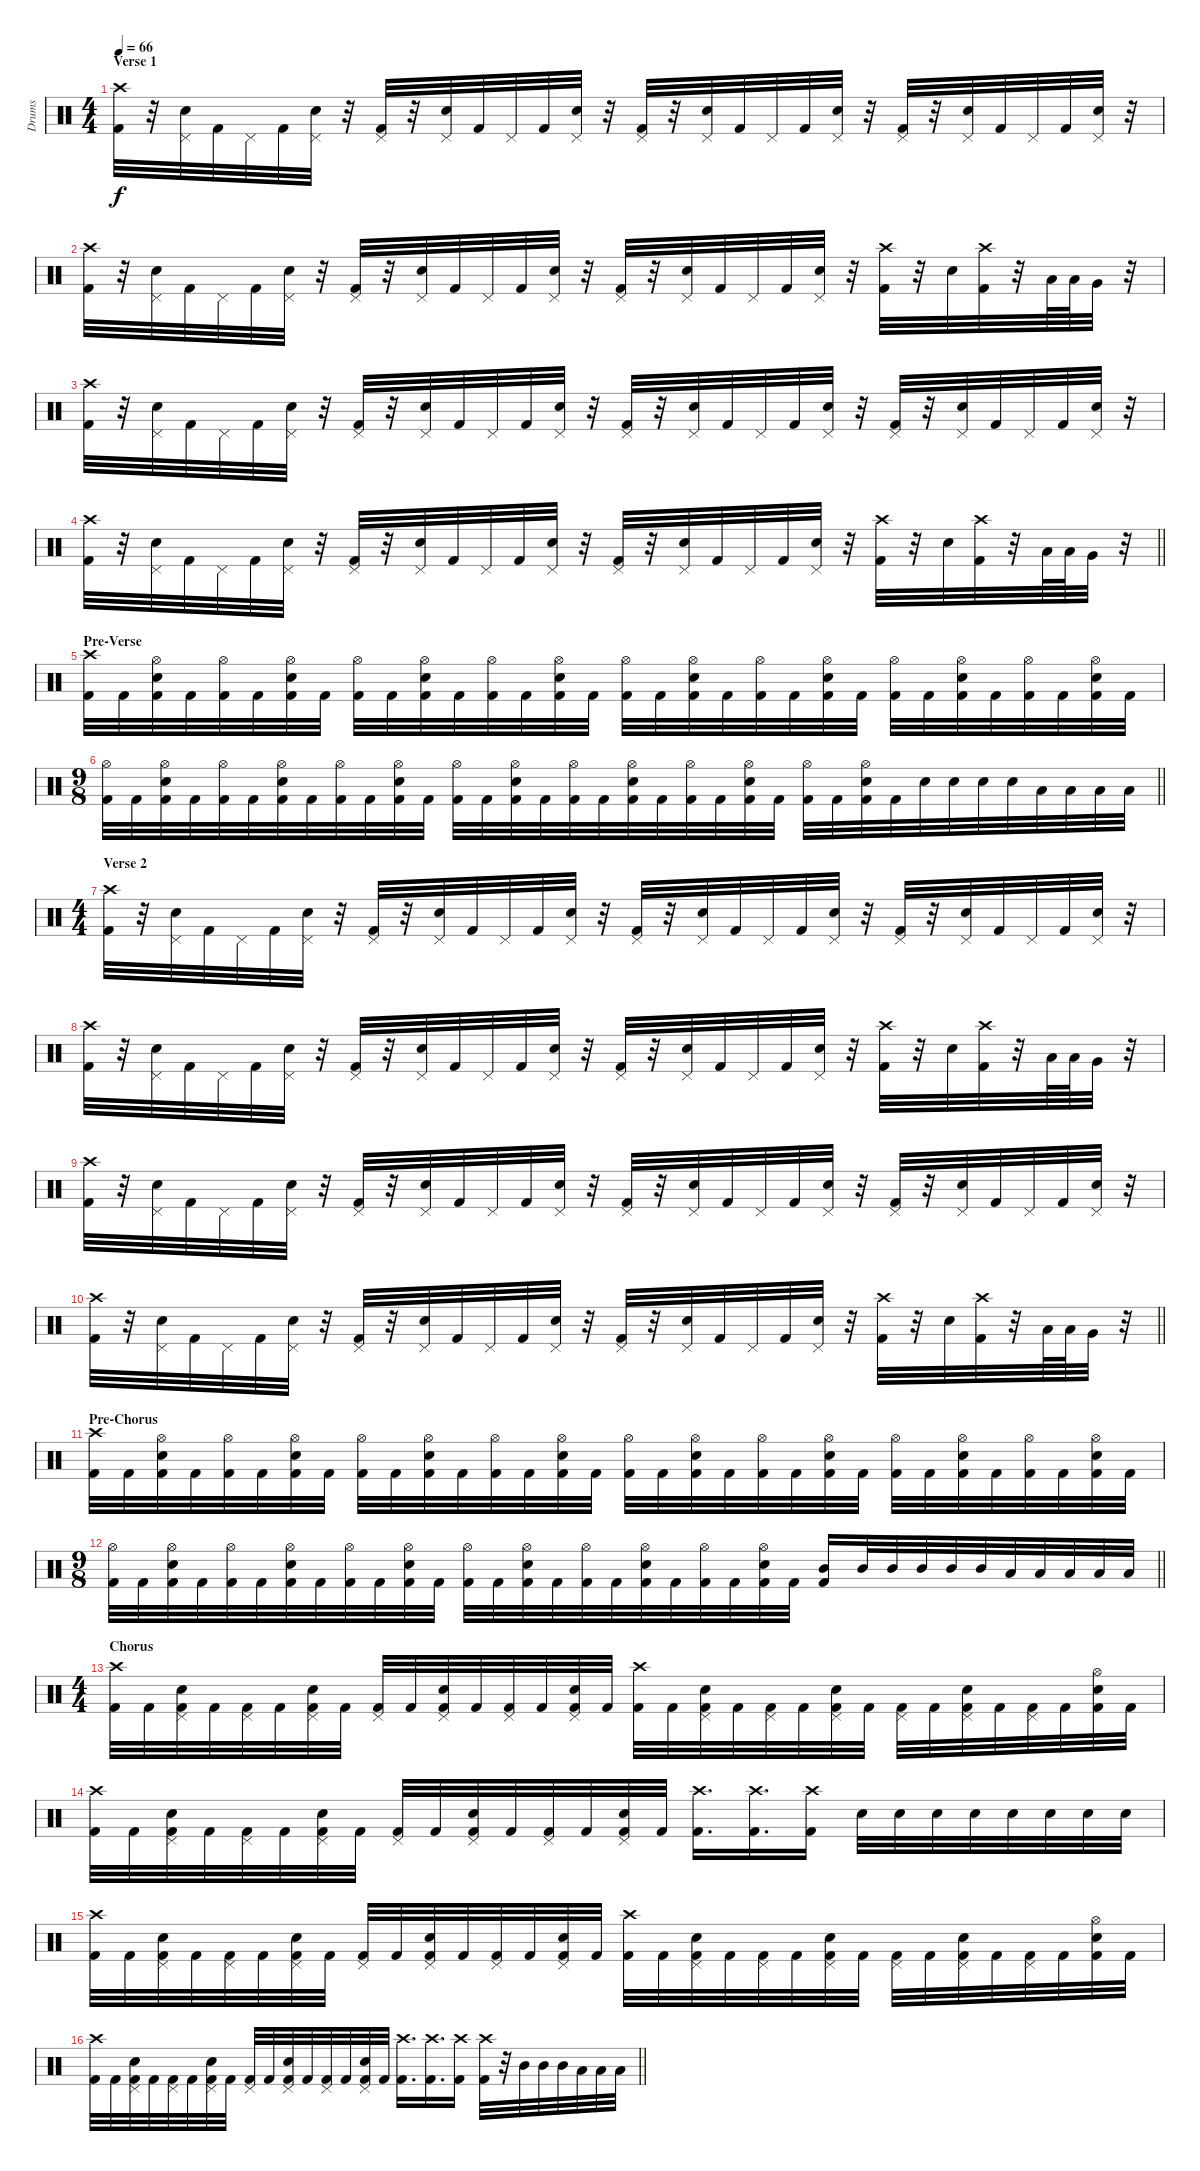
\track ("Drums" "Drums") {instrument percussion}
\staff {score}
\articulation defaults
\ts (4 4)
\section ("" "Verse 1")
\tempo 66
\clef neutral
\ks c
("Crash high (hit)" "Kick (hit) 2").32{dy f} r.32 ("Pedal Hi-Hat (hit)" "Snare (hit) 2").32 "Kick (hit) 2".32 "Pedal Hi-Hat (hit)".32 "Kick (hit) 2".32 ("Pedal Hi-Hat (hit)" "Snare (hit) 2").32 r.32 ("Pedal Hi-Hat (hit)" "Kick (hit) 2").32 r.32 ("Pedal Hi-Hat (hit)" "Snare (hit) 2").32 "Kick (hit) 2".32 "Pedal Hi-Hat (hit)".32 "Kick (hit) 2".32 ("Pedal Hi-Hat (hit)" "Snare (hit) 2").32 r.32 ("Pedal Hi-Hat (hit)" "Kick (hit) 2").32 r.32 ("Pedal Hi-Hat (hit)" "Snare (hit) 2").32 "Kick (hit) 2".32 "Pedal Hi-Hat (hit)".32 "Kick (hit) 2".32 ("Pedal Hi-Hat (hit)" "Snare (hit) 2").32 r.32 ("Pedal Hi-Hat (hit)" "Kick (hit) 2").32 r.32 ("Pedal Hi-Hat (hit)" "Snare (hit) 2").32 "Kick (hit) 2".32 "Pedal Hi-Hat (hit)".32 "Kick (hit) 2".32 ("Pedal Hi-Hat (hit)" "Snare (hit) 2").32 r.32 |
("Crash high (hit)" "Kick (hit) 2").32 r.32 ("Pedal Hi-Hat (hit)" "Snare (hit) 2").32 "Kick (hit) 2".32 "Pedal Hi-Hat (hit)".32 "Kick (hit) 2".32 ("Pedal Hi-Hat (hit)" "Snare (hit) 2").32 r.32 ("Pedal Hi-Hat (hit)" "Kick (hit) 2").32 r.32 ("Pedal Hi-Hat (hit)" "Snare (hit) 2").32 "Kick (hit) 2".32 "Pedal Hi-Hat (hit)".32 "Kick (hit) 2".32 ("Pedal Hi-Hat (hit)" "Snare (hit) 2").32 r.32 ("Pedal Hi-Hat (hit)" "Kick (hit) 2").32 r.32 ("Pedal Hi-Hat (hit)" "Snare (hit) 2").32 "Kick (hit) 2".32 "Pedal Hi-Hat (hit)".32 "Kick (hit) 2".32 ("Pedal Hi-Hat (hit)" "Snare (hit) 2").32 r.32 ("Crash high (hit)" "Kick (hit) 2").32 r.32 "Snare (hit) 2".32 ("Crash high (hit)" "Kick (hit) 2").32 r.32 "Low Tom (hit)".64 "Low Tom (hit)".64 "Very Low Tom (hit)".32 r.32 |
("Crash high (hit)" "Kick (hit) 2").32 r.32 ("Pedal Hi-Hat (hit)" "Snare (hit) 2").32 "Kick (hit) 2".32 "Pedal Hi-Hat (hit)".32 "Kick (hit) 2".32 ("Pedal Hi-Hat (hit)" "Snare (hit) 2").32 r.32 ("Pedal Hi-Hat (hit)" "Kick (hit) 2").32 r.32 ("Pedal Hi-Hat (hit)" "Snare (hit) 2").32 "Kick (hit) 2".32 "Pedal Hi-Hat (hit)".32 "Kick (hit) 2".32 ("Pedal Hi-Hat (hit)" "Snare (hit) 2").32 r.32 ("Pedal Hi-Hat (hit)" "Kick (hit) 2").32 r.32 ("Pedal Hi-Hat (hit)" "Snare (hit) 2").32 "Kick (hit) 2".32 "Pedal Hi-Hat (hit)".32 "Kick (hit) 2".32 ("Pedal Hi-Hat (hit)" "Snare (hit) 2").32 r.32 ("Pedal Hi-Hat (hit)" "Kick (hit) 2").32 r.32 ("Pedal Hi-Hat (hit)" "Snare (hit) 2").32 "Kick (hit) 2".32 "Pedal Hi-Hat (hit)".32 "Kick (hit) 2".32 ("Pedal Hi-Hat (hit)" "Snare (hit) 2").32 r.32 |
\barLineRight lightlight
("Crash high (hit)" "Kick (hit) 2").32 r.32 ("Pedal Hi-Hat (hit)" "Snare (hit) 2").32 "Kick (hit) 2".32 "Pedal Hi-Hat (hit)".32 "Kick (hit) 2".32 ("Pedal Hi-Hat (hit)" "Snare (hit) 2").32 r.32 ("Pedal Hi-Hat (hit)" "Kick (hit) 2").32 r.32 ("Pedal Hi-Hat (hit)" "Snare (hit) 2").32 "Kick (hit) 2".32 "Pedal Hi-Hat (hit)".32 "Kick (hit) 2".32 ("Pedal Hi-Hat (hit)" "Snare (hit) 2").32 r.32 ("Pedal Hi-Hat (hit)" "Kick (hit) 2").32 r.32 ("Pedal Hi-Hat (hit)" "Snare (hit) 2").32 "Kick (hit) 2".32 "Pedal Hi-Hat (hit)".32 "Kick (hit) 2".32 ("Pedal Hi-Hat (hit)" "Snare (hit) 2").32 r.32 ("Crash high (hit)" "Kick (hit) 2").32 r.32 "Snare (hit) 2".32 ("Crash high (hit)" "Kick (hit) 2").32 r.32 "Low Tom (hit)".64 "Low Tom (hit)".64 "Very Low Tom (hit)".32 r.32 |
\section ("" "Pre-Verse")
("Crash high (hit)" "Kick (hit) 2").32 "Kick (hit) 2".32 ("Hi-Hat (open)" "Snare (hit) 2" "Kick (hit) 2").32 "Kick (hit) 2".32 ("Hi-Hat (open)" "Kick (hit) 2").32 "Kick (hit) 2".32 ("Hi-Hat (open)" "Snare (hit) 2" "Kick (hit) 2").32 "Kick (hit) 2".32 ("Hi-Hat (open)" "Kick (hit) 2").32 "Kick (hit) 2".32 ("Hi-Hat (open)" "Snare (hit) 2" "Kick (hit) 2").32 "Kick (hit) 2".32 ("Hi-Hat (open)" "Kick (hit) 2").32 "Kick (hit) 2".32 ("Hi-Hat (open)" "Snare (hit) 2" "Kick (hit) 2").32 "Kick (hit) 2".32 ("Hi-Hat (open)" "Kick (hit) 2").32 "Kick (hit) 2".32 ("Hi-Hat (open)" "Snare (hit) 2" "Kick (hit) 2").32 "Kick (hit) 2".32 ("Hi-Hat (open)" "Kick (hit) 2").32 "Kick (hit) 2".32 ("Hi-Hat (open)" "Snare (hit) 2" "Kick (hit) 2").32 "Kick (hit) 2".32 ("Hi-Hat (open)" "Kick (hit) 2").32 "Kick (hit) 2".32 ("Hi-Hat (open)" "Snare (hit) 2" "Kick (hit) 2").32 "Kick (hit) 2".32 ("Hi-Hat (open)" "Kick (hit) 2").32 "Kick (hit) 2".32 ("Hi-Hat (open)" "Snare (hit) 2" "Kick (hit) 2").32 "Kick (hit) 2".32 |
\ts (9 8)
\barLineRight lightlight
("Hi-Hat (open)" "Kick (hit) 2").32 "Kick (hit) 2".32 ("Hi-Hat (open)" "Snare (hit) 2" "Kick (hit) 2").32 "Kick (hit) 2".32 ("Hi-Hat (open)" "Kick (hit) 2").32 "Kick (hit) 2".32 ("Hi-Hat (open)" "Snare (hit) 2" "Kick (hit) 2").32 "Kick (hit) 2".32 ("Hi-Hat (open)" "Kick (hit) 2").32 "Kick (hit) 2".32 ("Hi-Hat (open)" "Snare (hit) 2" "Kick (hit) 2").32 "Kick (hit) 2".32 ("Hi-Hat (open)" "Kick (hit) 2").32 "Kick (hit) 2".32 ("Hi-Hat (open)" "Snare (hit) 2" "Kick (hit) 2").32 "Kick (hit) 2".32 ("Hi-Hat (open)" "Kick (hit) 2").32 "Kick (hit) 2".32 ("Hi-Hat (open)" "Snare (hit) 2" "Kick (hit) 2").32 "Kick (hit) 2".32 ("Hi-Hat (open)" "Kick (hit) 2").32 "Kick (hit) 2".32 ("Hi-Hat (open)" "Snare (hit) 2" "Kick (hit) 2").32 "Kick (hit) 2".32 ("Hi-Hat (open)" "Kick (hit) 2").32 "Kick (hit) 2".32 ("Hi-Hat (open)" "Snare (hit) 2" "Kick (hit) 2").32 "Kick (hit) 2".32 "Snare (hit) 2".32 "Snare (hit) 2".32 "Snare (hit) 2".32 "Snare (hit) 2".32 "Low Tom (hit)".32 "Low Tom (hit)".32 "Low Tom (hit)".32 "Low Tom (hit)".32 |
\ts (4 4)
\section ("" "Verse 2")
("Crash high (hit)" "Kick (hit) 2").32 r.32 ("Pedal Hi-Hat (hit)" "Snare (hit) 2").32 "Kick (hit) 2".32 "Pedal Hi-Hat (hit)".32 "Kick (hit) 2".32 ("Pedal Hi-Hat (hit)" "Snare (hit) 2").32 r.32 ("Pedal Hi-Hat (hit)" "Kick (hit) 2").32 r.32 ("Pedal Hi-Hat (hit)" "Snare (hit) 2").32 "Kick (hit) 2".32 "Pedal Hi-Hat (hit)".32 "Kick (hit) 2".32 ("Pedal Hi-Hat (hit)" "Snare (hit) 2").32 r.32 ("Pedal Hi-Hat (hit)" "Kick (hit) 2").32 r.32 ("Pedal Hi-Hat (hit)" "Snare (hit) 2").32 "Kick (hit) 2".32 "Pedal Hi-Hat (hit)".32 "Kick (hit) 2".32 ("Pedal Hi-Hat (hit)" "Snare (hit) 2").32 r.32 ("Pedal Hi-Hat (hit)" "Kick (hit) 2").32 r.32 ("Pedal Hi-Hat (hit)" "Snare (hit) 2").32 "Kick (hit) 2".32 "Pedal Hi-Hat (hit)".32 "Kick (hit) 2".32 ("Pedal Hi-Hat (hit)" "Snare (hit) 2").32 r.32 |
("Crash high (hit)" "Kick (hit) 2").32 r.32 ("Pedal Hi-Hat (hit)" "Snare (hit) 2").32 "Kick (hit) 2".32 "Pedal Hi-Hat (hit)".32 "Kick (hit) 2".32 ("Pedal Hi-Hat (hit)" "Snare (hit) 2").32 r.32 ("Pedal Hi-Hat (hit)" "Kick (hit) 2").32 r.32 ("Pedal Hi-Hat (hit)" "Snare (hit) 2").32 "Kick (hit) 2".32 "Pedal Hi-Hat (hit)".32 "Kick (hit) 2".32 ("Pedal Hi-Hat (hit)" "Snare (hit) 2").32 r.32 ("Pedal Hi-Hat (hit)" "Kick (hit) 2").32 r.32 ("Pedal Hi-Hat (hit)" "Snare (hit) 2").32 "Kick (hit) 2".32 "Pedal Hi-Hat (hit)".32 "Kick (hit) 2".32 ("Pedal Hi-Hat (hit)" "Snare (hit) 2").32 r.32 ("Crash high (hit)" "Kick (hit) 2").32 r.32 "Snare (hit) 2".32 ("Crash high (hit)" "Kick (hit) 2").32 r.32 "Low Tom (hit)".64 "Low Tom (hit)".64 "Very Low Tom (hit)".32 r.32 |
("Crash high (hit)" "Kick (hit) 2").32 r.32 ("Pedal Hi-Hat (hit)" "Snare (hit) 2").32 "Kick (hit) 2".32 "Pedal Hi-Hat (hit)".32 "Kick (hit) 2".32 ("Pedal Hi-Hat (hit)" "Snare (hit) 2").32 r.32 ("Pedal Hi-Hat (hit)" "Kick (hit) 2").32 r.32 ("Pedal Hi-Hat (hit)" "Snare (hit) 2").32 "Kick (hit) 2".32 "Pedal Hi-Hat (hit)".32 "Kick (hit) 2".32 ("Pedal Hi-Hat (hit)" "Snare (hit) 2").32 r.32 ("Pedal Hi-Hat (hit)" "Kick (hit) 2").32 r.32 ("Pedal Hi-Hat (hit)" "Snare (hit) 2").32 "Kick (hit) 2".32 "Pedal Hi-Hat (hit)".32 "Kick (hit) 2".32 ("Pedal Hi-Hat (hit)" "Snare (hit) 2").32 r.32 ("Pedal Hi-Hat (hit)" "Kick (hit) 2").32 r.32 ("Pedal Hi-Hat (hit)" "Snare (hit) 2").32 "Kick (hit) 2".32 "Pedal Hi-Hat (hit)".32 "Kick (hit) 2".32 ("Pedal Hi-Hat (hit)" "Snare (hit) 2").32 r.32 |
\barLineRight lightlight
("Crash high (hit)" "Kick (hit) 2").32 r.32 ("Pedal Hi-Hat (hit)" "Snare (hit) 2").32 "Kick (hit) 2".32 "Pedal Hi-Hat (hit)".32 "Kick (hit) 2".32 ("Pedal Hi-Hat (hit)" "Snare (hit) 2").32 r.32 ("Pedal Hi-Hat (hit)" "Kick (hit) 2").32 r.32 ("Pedal Hi-Hat (hit)" "Snare (hit) 2").32 "Kick (hit) 2".32 "Pedal Hi-Hat (hit)".32 "Kick (hit) 2".32 ("Pedal Hi-Hat (hit)" "Snare (hit) 2").32 r.32 ("Pedal Hi-Hat (hit)" "Kick (hit) 2").32 r.32 ("Pedal Hi-Hat (hit)" "Snare (hit) 2").32 "Kick (hit) 2".32 "Pedal Hi-Hat (hit)".32 "Kick (hit) 2".32 ("Pedal Hi-Hat (hit)" "Snare (hit) 2").32 r.32 ("Crash high (hit)" "Kick (hit) 2").32 r.32 "Snare (hit) 2".32 ("Crash high (hit)" "Kick (hit) 2").32 r.32 "Low Tom (hit)".64 "Low Tom (hit)".64 "Very Low Tom (hit)".32 r.32 |
\section ("" "Pre-Chorus")
("Crash high (hit)" "Kick (hit) 2").32 "Kick (hit) 2".32 ("Hi-Hat (open)" "Snare (hit) 2" "Kick (hit) 2").32 "Kick (hit) 2".32 ("Hi-Hat (open)" "Kick (hit) 2").32 "Kick (hit) 2".32 ("Hi-Hat (open)" "Snare (hit) 2" "Kick (hit) 2").32 "Kick (hit) 2".32 ("Hi-Hat (open)" "Kick (hit) 2").32 "Kick (hit) 2".32 ("Hi-Hat (open)" "Snare (hit) 2" "Kick (hit) 2").32 "Kick (hit) 2".32 ("Hi-Hat (open)" "Kick (hit) 2").32 "Kick (hit) 2".32 ("Hi-Hat (open)" "Snare (hit) 2" "Kick (hit) 2").32 "Kick (hit) 2".32 ("Hi-Hat (open)" "Kick (hit) 2").32 "Kick (hit) 2".32 ("Hi-Hat (open)" "Snare (hit) 2" "Kick (hit) 2").32 "Kick (hit) 2".32 ("Hi-Hat (open)" "Kick (hit) 2").32 "Kick (hit) 2".32 ("Hi-Hat (open)" "Snare (hit) 2" "Kick (hit) 2").32 "Kick (hit) 2".32 ("Hi-Hat (open)" "Kick (hit) 2").32 "Kick (hit) 2".32 ("Hi-Hat (open)" "Snare (hit) 2" "Kick (hit) 2").32 "Kick (hit) 2".32 ("Hi-Hat (open)" "Kick (hit) 2").32 "Kick (hit) 2".32 ("Hi-Hat (open)" "Snare (hit) 2" "Kick (hit) 2").32 "Kick (hit) 2".32 |
\ts (9 8)
\barLineRight lightlight
("Hi-Hat (open)" "Kick (hit) 2").32 "Kick (hit) 2".32 ("Hi-Hat (open)" "Snare (hit) 2" "Kick (hit) 2").32 "Kick (hit) 2".32 ("Hi-Hat (open)" "Kick (hit) 2").32 "Kick (hit) 2".32 ("Hi-Hat (open)" "Snare (hit) 2" "Kick (hit) 2").32 "Kick (hit) 2".32 ("Hi-Hat (open)" "Kick (hit) 2").32 "Kick (hit) 2".32 ("Hi-Hat (open)" "Snare (hit) 2" "Kick (hit) 2").32 "Kick (hit) 2".32 ("Hi-Hat (open)" "Kick (hit) 2").32 "Kick (hit) 2".32 ("Hi-Hat (open)" "Snare (hit) 2" "Kick (hit) 2").32 "Kick (hit) 2".32 ("Hi-Hat (open)" "Kick (hit) 2").32 "Kick (hit) 2".32 ("Hi-Hat (open)" "Snare (hit) 2" "Kick (hit) 2").32 "Kick (hit) 2".32 ("Hi-Hat (open)" "Kick (hit) 2").32 "Kick (hit) 2".32 ("Hi-Hat (open)" "Snare (hit) 2" "Kick (hit) 2").32 "Kick (hit) 2".32 ("Mid Tom (hit)" "Kick (hit) 2").16 "Mid Tom (hit)".32 "Mid Tom (hit)".32 "Mid Tom (hit)".32 "Mid Tom (hit)".32 "Mid Tom (hit)".32 "Low Tom (hit)".32 "Low Tom (hit)".32 "Low Tom (hit)".32 "Low Tom (hit)".32 "Low Tom (hit)".32 |
\ts (4 4)
\section ("" "Chorus")
("Crash high (hit)" "Kick (hit) 2").32 "Kick (hit) 2".32 ("Pedal Hi-Hat (hit)" "Snare (hit) 2" "Kick (hit) 2").32 "Kick (hit) 2".32 ("Pedal Hi-Hat (hit)" "Kick (hit) 2").32 "Kick (hit) 2".32 ("Pedal Hi-Hat (hit)" "Snare (hit) 2" "Kick (hit) 2").32 "Kick (hit) 2".32 ("Pedal Hi-Hat (hit)" "Kick (hit) 2").32 "Kick (hit) 2".32 ("Pedal Hi-Hat (hit)" "Snare (hit) 2" "Kick (hit) 2").32 "Kick (hit) 2".32 ("Pedal Hi-Hat (hit)" "Kick (hit) 2").32 "Kick (hit) 2".32 ("Pedal Hi-Hat (hit)" "Snare (hit) 2" "Kick (hit) 2").32 "Kick (hit) 2".32 ("Crash high (hit)" "Kick (hit) 2").32 "Kick (hit) 2".32 ("Pedal Hi-Hat (hit)" "Snare (hit) 2" "Kick (hit) 2").32 "Kick (hit) 2".32 ("Pedal Hi-Hat (hit)" "Kick (hit) 2").32 "Kick (hit) 2".32 ("Pedal Hi-Hat (hit)" "Snare (hit) 2" "Kick (hit) 2").32 "Kick (hit) 2".32 ("Pedal Hi-Hat (hit)" "Kick (hit) 2").32 "Kick (hit) 2".32 ("Pedal Hi-Hat (hit)" "Snare (hit) 2" "Kick (hit) 2").32 "Kick (hit) 2".32 ("Pedal Hi-Hat (hit)" "Kick (hit) 2").32 "Kick (hit) 2".32 ("Hi-Hat (open)" "Snare (hit) 2" "Kick (hit) 2").32 "Kick (hit) 2".32 |
("Crash high (hit)" "Kick (hit) 2").32 "Kick (hit) 2".32 ("Pedal Hi-Hat (hit)" "Snare (hit) 2" "Kick (hit) 2").32 "Kick (hit) 2".32 ("Pedal Hi-Hat (hit)" "Kick (hit) 2").32 "Kick (hit) 2".32 ("Pedal Hi-Hat (hit)" "Snare (hit) 2" "Kick (hit) 2").32 "Kick (hit) 2".32 ("Pedal Hi-Hat (hit)" "Kick (hit) 2").32 "Kick (hit) 2".32 ("Pedal Hi-Hat (hit)" "Snare (hit) 2" "Kick (hit) 2").32 "Kick (hit) 2".32 ("Pedal Hi-Hat (hit)" "Kick (hit) 2").32 "Kick (hit) 2".32 ("Pedal Hi-Hat (hit)" "Snare (hit) 2" "Kick (hit) 2").32 "Kick (hit) 2".32 ("Crash high (hit)" "Kick (hit) 2").16{d} ("Crash high (hit)" "Kick (hit) 2").16{d} ("Crash high (hit)" "Kick (hit) 2").16 "Snare (hit) 2".32 "Snare (hit) 2".32 "Snare (hit) 2".32 "Snare (hit) 2".32 "Snare (hit) 2".32 "Snare (hit) 2".32 "Snare (hit) 2".32 "Snare (hit) 2".32 |
("Crash high (hit)" "Kick (hit) 2").32 "Kick (hit) 2".32 ("Pedal Hi-Hat (hit)" "Snare (hit) 2" "Kick (hit) 2").32 "Kick (hit) 2".32 ("Pedal Hi-Hat (hit)" "Kick (hit) 2").32 "Kick (hit) 2".32 ("Pedal Hi-Hat (hit)" "Snare (hit) 2" "Kick (hit) 2").32 "Kick (hit) 2".32 ("Pedal Hi-Hat (hit)" "Kick (hit) 2").32 "Kick (hit) 2".32 ("Pedal Hi-Hat (hit)" "Snare (hit) 2" "Kick (hit) 2").32 "Kick (hit) 2".32 ("Pedal Hi-Hat (hit)" "Kick (hit) 2").32 "Kick (hit) 2".32 ("Pedal Hi-Hat (hit)" "Snare (hit) 2" "Kick (hit) 2").32 "Kick (hit) 2".32 ("Crash high (hit)" "Kick (hit) 2").32 "Kick (hit) 2".32 ("Pedal Hi-Hat (hit)" "Snare (hit) 2" "Kick (hit) 2").32 "Kick (hit) 2".32 ("Pedal Hi-Hat (hit)" "Kick (hit) 2").32 "Kick (hit) 2".32 ("Pedal Hi-Hat (hit)" "Snare (hit) 2" "Kick (hit) 2").32 "Kick (hit) 2".32 ("Pedal Hi-Hat (hit)" "Kick (hit) 2").32 "Kick (hit) 2".32 ("Pedal Hi-Hat (hit)" "Snare (hit) 2" "Kick (hit) 2").32 "Kick (hit) 2".32 ("Pedal Hi-Hat (hit)" "Kick (hit) 2").32 "Kick (hit) 2".32 ("Hi-Hat (open)" "Snare (hit) 2" "Kick (hit) 2").32 "Kick (hit) 2".32 |
\barLineRight lightlight
("Crash high (hit)" "Kick (hit) 2").32 "Kick (hit) 2".32 ("Pedal Hi-Hat (hit)" "Snare (hit) 2" "Kick (hit) 2").32 "Kick (hit) 2".32 ("Pedal Hi-Hat (hit)" "Kick (hit) 2").32 "Kick (hit) 2".32 ("Pedal Hi-Hat (hit)" "Snare (hit) 2" "Kick (hit) 2").32 "Kick (hit) 2".32 ("Pedal Hi-Hat (hit)" "Kick (hit) 2").32 "Kick (hit) 2".32 ("Pedal Hi-Hat (hit)" "Snare (hit) 2" "Kick (hit) 2").32 "Kick (hit) 2".32 ("Pedal Hi-Hat (hit)" "Kick (hit) 2").32 "Kick (hit) 2".32 ("Pedal Hi-Hat (hit)" "Snare (hit) 2" "Kick (hit) 2").32 "Kick (hit) 2".32 ("Crash high (hit)" "Kick (hit) 2").16{d} ("Crash high (hit)" "Kick (hit) 2").16{d} ("Crash high (hit)" "Kick (hit) 2").16 ("Crash high (hit)" "Kick (hit) 2").32 r.32 "Mid Tom (hit)".32 "Mid Tom (hit)".32 "Mid Tom (hit)".32 "Low Tom (hit)".32 "Low Tom (hit)".32 "Low Tom (hit)".32
